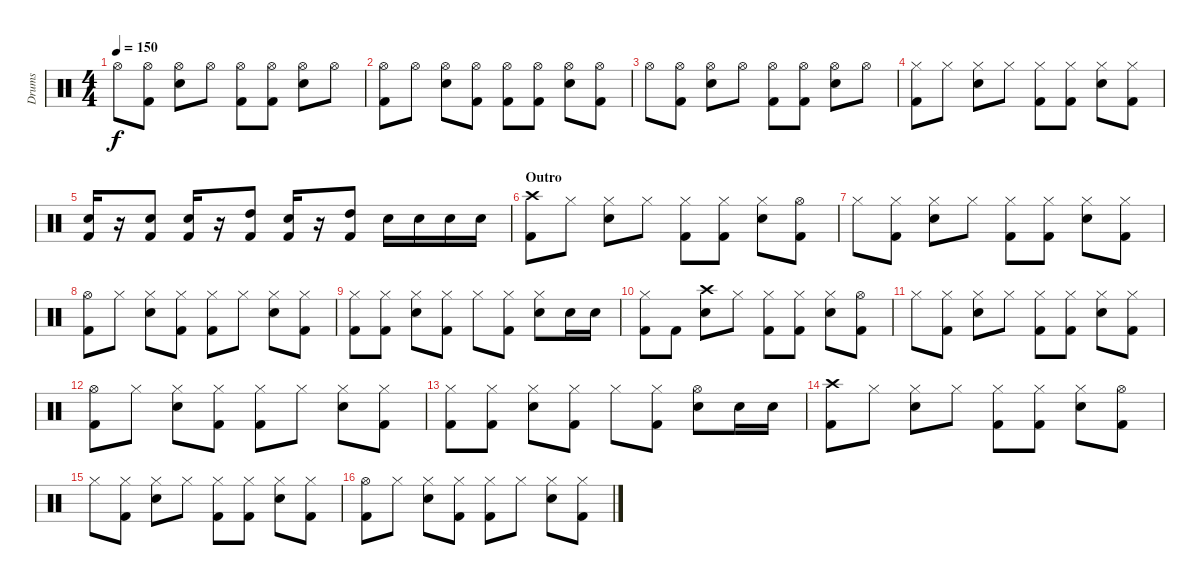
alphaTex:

\track ("Drums" "Drums") {instrument percussion}
\staff {score}
\articulation defaults
\ts (4 4)
\tempo 150
\clef neutral
\ks c "Hi-Hat (open)".8{dy f}
("Hi-Hat (open)" "Kick (hit) 2").8 ("Hi-Hat (open)" "Electric Snare (hit)").8 "Hi-Hat (open)".8 ("Hi-Hat (open)" "Kick (hit) 2").8 ("Hi-Hat (open)" "Kick (hit) 2").8 ("Hi-Hat (open)" "Electric Snare (hit)").8 "Hi-Hat (open)".8 |
("Hi-Hat (open)" "Kick (hit) 2").8 "Hi-Hat (open)".8 ("Hi-Hat (open)" "Electric Snare (hit)").8 ("Hi-Hat (open)" "Kick (hit) 2").8 ("Hi-Hat (open)" "Kick (hit) 2").8 ("Hi-Hat (open)" "Kick (hit) 2").8 ("Hi-Hat (open)" "Electric Snare (hit)").8 ("Hi-Hat (open)" "Kick (hit) 2").8 |
"Hi-Hat (open)".8 ("Hi-Hat (open)" "Kick (hit) 2").8 ("Hi-Hat (open)" "Electric Snare (hit)").8 "Hi-Hat (open)".8 ("Hi-Hat (open)" "Kick (hit) 2").8 ("Hi-Hat (open)" "Kick (hit) 2").8 ("Hi-Hat (open)" "Electric Snare (hit)").8 "Hi-Hat (open)".8 |
("Hi-Hat (closed)" "Kick (hit) 2").8 "Hi-Hat (closed)".8 ("Hi-Hat (closed)" "Electric Snare (hit)").8 "Hi-Hat (closed)".8 ("Hi-Hat (closed)" "Kick (hit) 2").8 ("Hi-Hat (closed)" "Kick (hit) 2").8 ("Hi-Hat (closed)" "Electric Snare (hit)").8 ("Hi-Hat (closed)" "Kick (hit) 2").8 |
("Electric Snare (hit)" "Kick (hit) 2").16 r.16 ("Electric Snare (hit)" "Kick (hit) 2").8 ("Electric Snare (hit)" "Kick (hit) 2").16 r.16 ("High Tom (hit)" "Kick (hit) 2").8 ("Electric Snare (hit)" "Kick (hit) 2").16 r.16 ("High Tom (hit)" "Kick (hit) 2").8 "Electric Snare (hit)".16 "Electric Snare (hit)".16 "Electric Snare (hit)".16 "Electric Snare (hit)".16 |
\section ("" "Outro")
("Crash high (hit)" "Kick (hit) 2").8 "Hi-Hat (closed)".8 ("Hi-Hat (closed)" "Electric Snare (hit)").8 "Hi-Hat (closed)".8 ("Hi-Hat (closed)" "Kick (hit) 2").8 ("Hi-Hat (closed)" "Kick (hit) 2").8 ("Hi-Hat (closed)" "Electric Snare (hit)").8 ("Hi-Hat (open)" "Kick (hit) 2").8 |
"Hi-Hat (closed)".8 ("Hi-Hat (closed)" "Kick (hit) 2").8 ("Hi-Hat (closed)" "Electric Snare (hit)").8 "Hi-Hat (closed)".8 ("Hi-Hat (closed)" "Kick (hit) 2").8 ("Hi-Hat (closed)" "Kick (hit) 2").8 ("Hi-Hat (closed)" "Electric Snare (hit)").8 ("Hi-Hat (closed)" "Kick (hit) 2").8 |
("Hi-Hat (open)" "Kick (hit) 2").8 "Hi-Hat (closed)".8 ("Hi-Hat (closed)" "Electric Snare (hit)").8 ("Hi-Hat (closed)" "Kick (hit) 2").8 ("Hi-Hat (closed)" "Kick (hit) 2").8 "Hi-Hat (closed)".8 ("Hi-Hat (closed)" "Electric Snare (hit)").8 ("Hi-Hat (closed)" "Kick (hit) 2").8 |
("Hi-Hat (closed)" "Kick (hit) 2").8 ("Hi-Hat (closed)" "Kick (hit) 2").8 ("Hi-Hat (closed)" "Electric Snare (hit)").8 ("Hi-Hat (closed)" "Kick (hit) 2").8 "Hi-Hat (closed)".8 ("Hi-Hat (closed)" "Kick (hit) 2").8 ("Hi-Hat (closed)" "Electric Snare (hit)").8 "Electric Snare (hit)".16 "Electric Snare (hit)".16 |
("Hi-Hat (closed)" "Kick (hit) 2").8 "Kick (hit) 2".8 ("Crash high (hit)" "Electric Snare (hit)").8 "Hi-Hat (closed)".8 ("Hi-Hat (closed)" "Kick (hit) 2").8 ("Hi-Hat (closed)" "Kick (hit) 2").8 ("Hi-Hat (closed)" "Electric Snare (hit)").8 ("Hi-Hat (open)" "Kick (hit) 2").8 |
"Hi-Hat (closed)".8 ("Hi-Hat (closed)" "Kick (hit) 2").8 ("Hi-Hat (closed)" "Electric Snare (hit)").8 "Hi-Hat (closed)".8 ("Hi-Hat (closed)" "Kick (hit) 2").8 ("Hi-Hat (closed)" "Kick (hit) 2").8 ("Hi-Hat (closed)" "Electric Snare (hit)").8 ("Hi-Hat (closed)" "Kick (hit) 2").8 |
("Hi-Hat (open)" "Kick (hit) 2").8 "Hi-Hat (closed)".8 ("Hi-Hat (closed)" "Electric Snare (hit)").8 ("Hi-Hat (closed)" "Kick (hit) 2").8 ("Hi-Hat (closed)" "Kick (hit) 2").8 "Hi-Hat (closed)".8 ("Hi-Hat (closed)" "Electric Snare (hit)").8 ("Hi-Hat (closed)" "Kick (hit) 2").8 |
("Hi-Hat (closed)" "Kick (hit) 2").8 ("Hi-Hat (closed)" "Kick (hit) 2").8 ("Hi-Hat (closed)" "Electric Snare (hit)").8 ("Hi-Hat (closed)" "Kick (hit) 2").8 "Hi-Hat (closed)".8 ("Hi-Hat (closed)" "Kick (hit) 2").8 ("Hi-Hat (open)" "Electric Snare (hit)").8 "Electric Snare (hit)".16 "Electric Snare (hit)".16 |
("Crash high (hit)" "Kick (hit) 2").8 "Hi-Hat (closed)".8 ("Hi-Hat (closed)" "Electric Snare (hit)").8 "Hi-Hat (closed)".8 ("Hi-Hat (closed)" "Kick (hit) 2").8 ("Hi-Hat (closed)" "Kick (hit) 2").8 ("Hi-Hat (closed)" "Electric Snare (hit)").8 ("Hi-Hat (open)" "Kick (hit) 2").8 |
"Hi-Hat (closed)".8 ("Hi-Hat (closed)" "Kick (hit) 2").8 ("Hi-Hat (closed)" "Electric Snare (hit)").8 "Hi-Hat (closed)".8 ("Hi-Hat (closed)" "Kick (hit) 2").8 ("Hi-Hat (closed)" "Kick (hit) 2").8 ("Hi-Hat (closed)" "Electric Snare (hit)").8 ("Hi-Hat (closed)" "Kick (hit) 2").8 |
("Hi-Hat (open)" "Kick (hit) 2").8 "Hi-Hat (closed)".8 ("Hi-Hat (closed)" "Electric Snare (hit)").8 ("Hi-Hat (closed)" "Kick (hit) 2").8 ("Hi-Hat (closed)" "Kick (hit) 2").8 "Hi-Hat (closed)".8 ("Hi-Hat (closed)" "Electric Snare (hit)").8 ("Hi-Hat (closed)" "Kick (hit) 2").8
